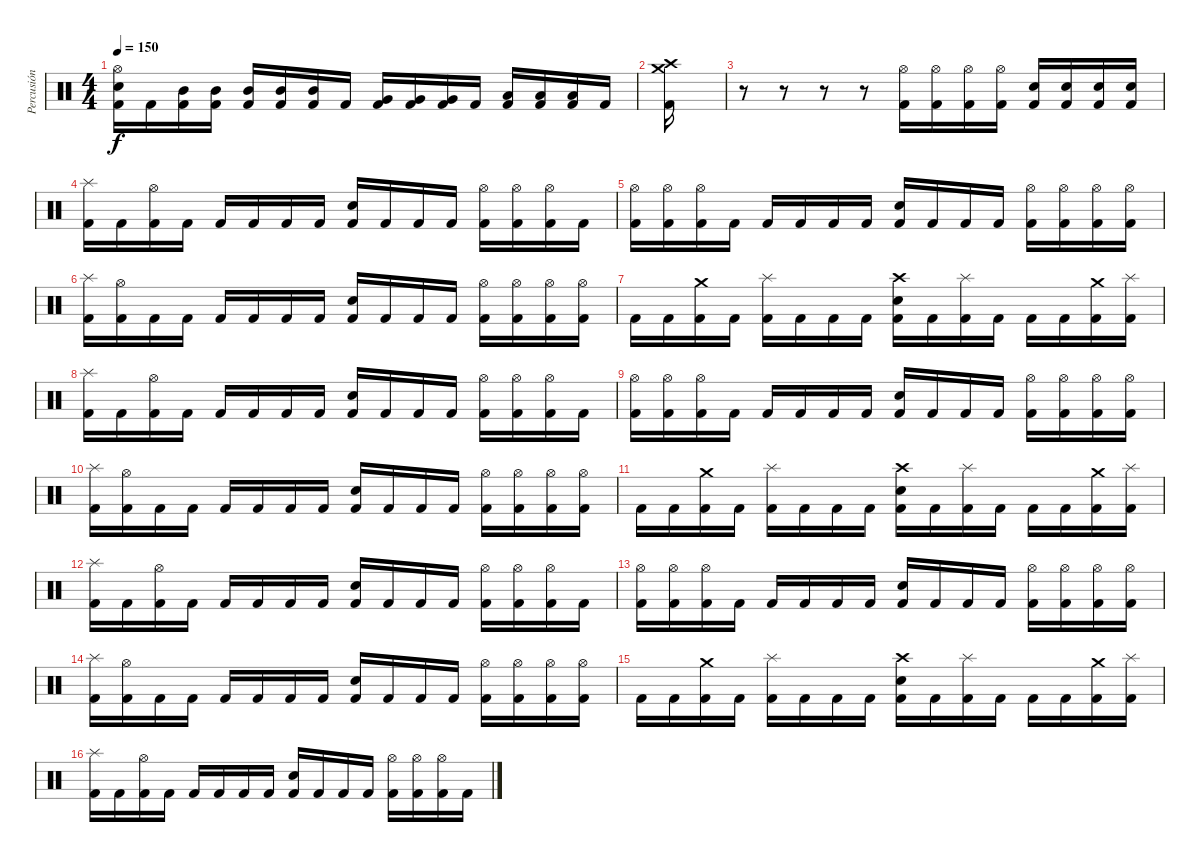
\track ("Percusión" "Percusión") {instrument percussion}
\staff {score}
\articulation defaults
\ts (4 4)
\tempo 150
\clef neutral
\ks c
("Hi-Hat (open)" "Snare (hit) 2" "Kick (hit) 2").16{dy f} "Kick (hit) 2".16 ("Mid Tom (hit)" "Kick (hit) 2").16 ("Mid Tom (hit)" "Kick (hit) 2").16 ("Mid Tom (hit)" "Kick (hit) 2").16 ("Mid Tom (hit)" "Kick (hit) 2").16 ("Mid Tom (hit)" "Kick (hit) 2").16 "Kick (hit) 2".16 ("Very Low Tom (hit)" "Kick (hit) 2").16 ("Very Low Tom (hit)" "Kick (hit) 2").16 ("Very Low Tom (hit)" "Kick (hit) 2").16 "Kick (hit) 2".16 ("Low Floor Tom (hit)" "Kick (hit) 2").16 ("Low Floor Tom (hit)" "Kick (hit) 2").16 ("Low Floor Tom (hit)" "Kick (hit) 2").16 "Kick (hit) 2".16 |
("Crash high (hit)" "Crash medium (hit)" "Kick (hit) 2").16 |
r.8 r.8 r.8 r.8 ("Hi-Hat (open)" "Kick (hit) 2").16 ("Hi-Hat (open)" "Kick (hit) 2").16 ("Hi-Hat (open)" "Kick (hit) 2").16 ("Hi-Hat (open)" "Kick (hit) 2").16 ("Snare (hit) 2" "Kick (hit) 2").16 ("Snare (hit) 2" "Kick (hit) 2").16 ("Snare (hit) 2" "Kick (hit) 2").16 ("Snare (hit) 2" "Kick (hit) 2").16 |
("Splash (hit)" "Kick (hit) 2").16 "Kick (hit) 2".16 ("Hi-Hat (open)" "Kick (hit) 2").16 "Kick (hit) 2".16 "Kick (hit) 2".16 "Kick (hit) 2".16 "Kick (hit) 2".16 "Kick (hit) 2".16 ("Snare (hit) 2" "Kick (hit) 2").16 "Kick (hit) 2".16 "Kick (hit) 2".16 "Kick (hit) 2".16 ("Hi-Hat (open)" "Kick (hit) 2").16 ("Hi-Hat (open)" "Kick (hit) 2").16 ("Hi-Hat (open)" "Kick (hit) 2").16 "Kick (hit) 2".16 |
("Hi-Hat (open)" "Kick (hit) 2").16 ("Hi-Hat (open)" "Kick (hit) 2").16 ("Hi-Hat (open)" "Kick (hit) 2").16 "Kick (hit) 2".16 "Kick (hit) 2".16 "Kick (hit) 2".16 "Kick (hit) 2".16 "Kick (hit) 2".16 ("Snare (hit) 2" "Kick (hit) 2").16 "Kick (hit) 2".16 "Kick (hit) 2".16 "Kick (hit) 2".16 ("Hi-Hat (open)" "Kick (hit) 2").16 ("Hi-Hat (open)" "Kick (hit) 2").16 ("Hi-Hat (open)" "Kick (hit) 2").16 ("Hi-Hat (open)" "Kick (hit) 2").16 |
("Splash (hit)" "Kick (hit) 2").16 ("Hi-Hat (open)" "Kick (hit) 2").16 "Kick (hit) 2".16 "Kick (hit) 2".16 "Kick (hit) 2".16 "Kick (hit) 2".16 "Kick (hit) 2".16 "Kick (hit) 2".16 ("Snare (hit) 2" "Kick (hit) 2").16 "Kick (hit) 2".16 "Kick (hit) 2".16 "Kick (hit) 2".16 ("Hi-Hat (open)" "Kick (hit) 2").16 ("Hi-Hat (open)" "Kick (hit) 2").16 ("Hi-Hat (open)" "Kick (hit) 2").16 ("Hi-Hat (open)" "Kick (hit) 2").16 |
"Kick (hit) 2".16 "Kick (hit) 2".16 ("Crash medium (hit)" "Kick (hit) 2").16 "Kick (hit) 2".16 ("Splash (hit)" "Kick (hit) 2").16 "Kick (hit) 2".16 "Kick (hit) 2".16 "Kick (hit) 2".16 ("Crash high (hit)" "Snare (hit) 2" "Kick (hit) 2").16 "Kick (hit) 2".16 ("Splash (hit)" "Kick (hit) 2").16 "Kick (hit) 2".16 "Kick (hit) 2".16 "Kick (hit) 2".16 ("Crash medium (hit)" "Kick (hit) 2").16 ("Splash (hit)" "Kick (hit) 2").16 |
("Splash (hit)" "Kick (hit) 2").16 "Kick (hit) 2".16 ("Hi-Hat (open)" "Kick (hit) 2").16 "Kick (hit) 2".16 "Kick (hit) 2".16 "Kick (hit) 2".16 "Kick (hit) 2".16 "Kick (hit) 2".16 ("Snare (hit) 2" "Kick (hit) 2").16 "Kick (hit) 2".16 "Kick (hit) 2".16 "Kick (hit) 2".16 ("Hi-Hat (open)" "Kick (hit) 2").16 ("Hi-Hat (open)" "Kick (hit) 2").16 ("Hi-Hat (open)" "Kick (hit) 2").16 "Kick (hit) 2".16 |
("Hi-Hat (open)" "Kick (hit) 2").16 ("Hi-Hat (open)" "Kick (hit) 2").16 ("Hi-Hat (open)" "Kick (hit) 2").16 "Kick (hit) 2".16 "Kick (hit) 2".16 "Kick (hit) 2".16 "Kick (hit) 2".16 "Kick (hit) 2".16 ("Snare (hit) 2" "Kick (hit) 2").16 "Kick (hit) 2".16 "Kick (hit) 2".16 "Kick (hit) 2".16 ("Hi-Hat (open)" "Kick (hit) 2").16 ("Hi-Hat (open)" "Kick (hit) 2").16 ("Hi-Hat (open)" "Kick (hit) 2").16 ("Hi-Hat (open)" "Kick (hit) 2").16 |
("Splash (hit)" "Kick (hit) 2").16 ("Hi-Hat (open)" "Kick (hit) 2").16 "Kick (hit) 2".16 "Kick (hit) 2".16 "Kick (hit) 2".16 "Kick (hit) 2".16 "Kick (hit) 2".16 "Kick (hit) 2".16 ("Snare (hit) 2" "Kick (hit) 2").16 "Kick (hit) 2".16 "Kick (hit) 2".16 "Kick (hit) 2".16 ("Hi-Hat (open)" "Kick (hit) 2").16 ("Hi-Hat (open)" "Kick (hit) 2").16 ("Hi-Hat (open)" "Kick (hit) 2").16 ("Hi-Hat (open)" "Kick (hit) 2").16 |
"Kick (hit) 2".16 "Kick (hit) 2".16 ("Crash medium (hit)" "Kick (hit) 2").16 "Kick (hit) 2".16 ("Splash (hit)" "Kick (hit) 2").16 "Kick (hit) 2".16 "Kick (hit) 2".16 "Kick (hit) 2".16 ("Crash high (hit)" "Snare (hit) 2" "Kick (hit) 2").16 "Kick (hit) 2".16 ("Splash (hit)" "Kick (hit) 2").16 "Kick (hit) 2".16 "Kick (hit) 2".16 "Kick (hit) 2".16 ("Crash medium (hit)" "Kick (hit) 2").16 ("Splash (hit)" "Kick (hit) 2").16 |
("Splash (hit)" "Kick (hit) 2").16 "Kick (hit) 2".16 ("Hi-Hat (open)" "Kick (hit) 2").16 "Kick (hit) 2".16 "Kick (hit) 2".16 "Kick (hit) 2".16 "Kick (hit) 2".16 "Kick (hit) 2".16 ("Snare (hit) 2" "Kick (hit) 2").16 "Kick (hit) 2".16 "Kick (hit) 2".16 "Kick (hit) 2".16 ("Hi-Hat (open)" "Kick (hit) 2").16 ("Hi-Hat (open)" "Kick (hit) 2").16 ("Hi-Hat (open)" "Kick (hit) 2").16 "Kick (hit) 2".16 |
("Hi-Hat (open)" "Kick (hit) 2").16 ("Hi-Hat (open)" "Kick (hit) 2").16 ("Hi-Hat (open)" "Kick (hit) 2").16 "Kick (hit) 2".16 "Kick (hit) 2".16 "Kick (hit) 2".16 "Kick (hit) 2".16 "Kick (hit) 2".16 ("Snare (hit) 2" "Kick (hit) 2").16 "Kick (hit) 2".16 "Kick (hit) 2".16 "Kick (hit) 2".16 ("Hi-Hat (open)" "Kick (hit) 2").16 ("Hi-Hat (open)" "Kick (hit) 2").16 ("Hi-Hat (open)" "Kick (hit) 2").16 ("Hi-Hat (open)" "Kick (hit) 2").16 |
("Splash (hit)" "Kick (hit) 2").16 ("Hi-Hat (open)" "Kick (hit) 2").16 "Kick (hit) 2".16 "Kick (hit) 2".16 "Kick (hit) 2".16 "Kick (hit) 2".16 "Kick (hit) 2".16 "Kick (hit) 2".16 ("Snare (hit) 2" "Kick (hit) 2").16 "Kick (hit) 2".16 "Kick (hit) 2".16 "Kick (hit) 2".16 ("Hi-Hat (open)" "Kick (hit) 2").16 ("Hi-Hat (open)" "Kick (hit) 2").16 ("Hi-Hat (open)" "Kick (hit) 2").16 ("Hi-Hat (open)" "Kick (hit) 2").16 |
"Kick (hit) 2".16 "Kick (hit) 2".16 ("Crash medium (hit)" "Kick (hit) 2").16 "Kick (hit) 2".16 ("Splash (hit)" "Kick (hit) 2").16 "Kick (hit) 2".16 "Kick (hit) 2".16 "Kick (hit) 2".16 ("Crash high (hit)" "Snare (hit) 2" "Kick (hit) 2").16 "Kick (hit) 2".16 ("Splash (hit)" "Kick (hit) 2").16 "Kick (hit) 2".16 "Kick (hit) 2".16 "Kick (hit) 2".16 ("Crash medium (hit)" "Kick (hit) 2").16 ("Splash (hit)" "Kick (hit) 2").16 |
("Splash (hit)" "Kick (hit) 2").16 "Kick (hit) 2".16 ("Hi-Hat (open)" "Kick (hit) 2").16 "Kick (hit) 2".16 "Kick (hit) 2".16 "Kick (hit) 2".16 "Kick (hit) 2".16 "Kick (hit) 2".16 ("Snare (hit) 2" "Kick (hit) 2").16 "Kick (hit) 2".16 "Kick (hit) 2".16 "Kick (hit) 2".16 ("Hi-Hat (open)" "Kick (hit) 2").16 ("Hi-Hat (open)" "Kick (hit) 2").16 ("Hi-Hat (open)" "Kick (hit) 2").16 "Kick (hit) 2".16
